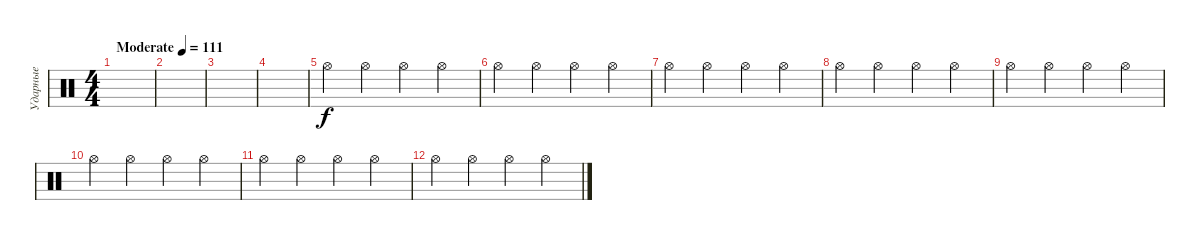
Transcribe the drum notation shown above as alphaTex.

\track ("Ударные" "Ударные") {instrument percussion}
\staff {score}
\articulation defaults
\ts (4 4)
\tempo (111 "Moderate")
\clef neutral
\ks c
|
|
|
|
"Hi-Hat (open)".4 "Hi-Hat (open)".4 "Hi-Hat (open)".4 "Hi-Hat (open)".4 |
"Hi-Hat (open)".4 "Hi-Hat (open)".4 "Hi-Hat (open)".4 "Hi-Hat (open)".4 |
"Hi-Hat (open)".4 "Hi-Hat (open)".4 "Hi-Hat (open)".4 "Hi-Hat (open)".4 |
"Hi-Hat (open)".4 "Hi-Hat (open)".4 "Hi-Hat (open)".4 "Hi-Hat (open)".4 |
"Hi-Hat (open)".4 "Hi-Hat (open)".4 "Hi-Hat (open)".4 "Hi-Hat (open)".4 |
"Hi-Hat (open)".4 "Hi-Hat (open)".4 "Hi-Hat (open)".4 "Hi-Hat (open)".4 |
"Hi-Hat (open)".4 "Hi-Hat (open)".4 "Hi-Hat (open)".4 "Hi-Hat (open)".4 |
"Hi-Hat (open)".4 "Hi-Hat (open)".4 "Hi-Hat (open)".4 "Hi-Hat (open)".4
